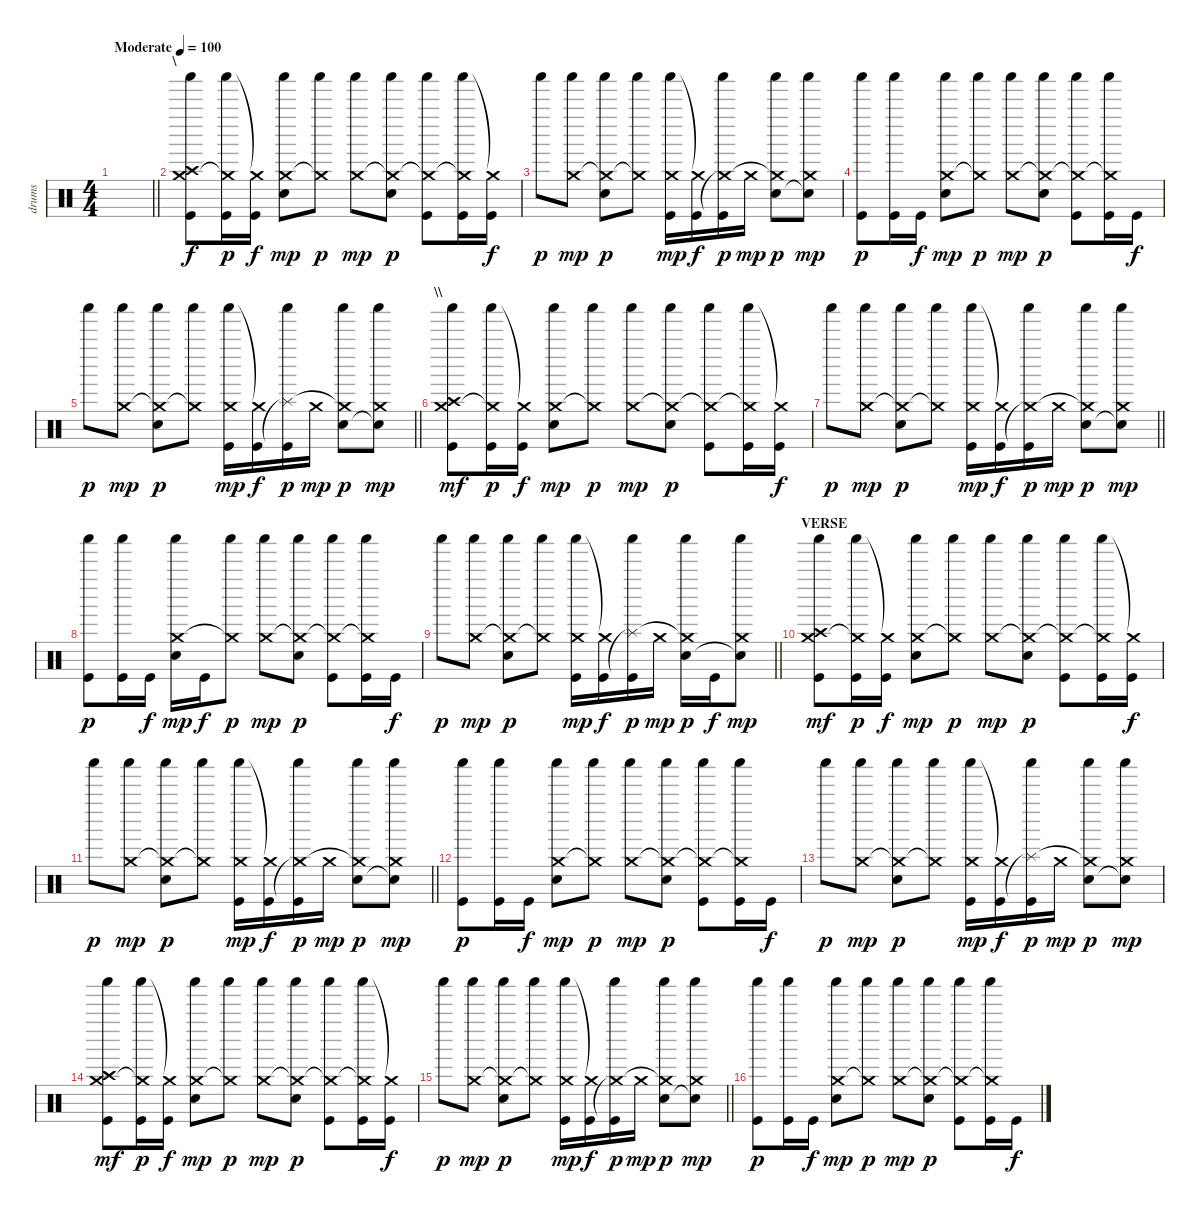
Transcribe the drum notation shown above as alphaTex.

\track ("drums" "drums") {instrument percussion}
\staff {score}
\articulation defaults
\ts (4 4)
\tempo (100 "Moderate")
\clef neutral
\barLineRight lightlight
\ks c
|
\section ("" "\\")
("Shaker (hit)" "Crash medium (hit)" "Crash high (hit)" "Kick (hit)").8 ("Shaker (hit)" "Crash medium (hit)"{t} "Kick (hit)").16{dy p} ("Crash medium (hit)"{t} "Kick (hit)").16{dy f} ("Shaker (hit)" "Crash medium (hit)" "Electric Snare (hit)").8{dy mp} ("Shaker (hit)" "Crash medium (hit)"{t}).8{dy p} ("Shaker (hit)" "Crash medium (hit)").8{dy mp} ("Shaker (hit)" "Crash medium (hit)"{t} "Electric Snare (hit)").8{dy p} ("Shaker (hit)" "Crash medium (hit)"{t} "Kick (hit)").8 ("Shaker (hit)" "Crash medium (hit)"{t} "Kick (hit)").16 ("Crash medium (hit)"{t} "Kick (hit)").16{dy f} |
"Shaker (hit)".8{dy p} ("Shaker (hit)" "Crash medium (hit)").8{dy mp} ("Shaker (hit)" "Crash medium (hit)"{t} "Electric Snare (hit)").8{dy p} ("Shaker (hit)" "Crash medium (hit)"{t}).8 ("Shaker (hit)" "Crash medium (hit)" "Kick (hit)").16{dy mp} ("Crash medium (hit)"{t} "Kick (hit)").16{dy f} ("Shaker (hit)" "Crash medium (hit)"{t} "Kick (hit)").16{dy p} "Crash medium (hit)".16{dy mp} ("Shaker (hit)" "Crash medium (hit)"{t} "Electric Snare (hit)").8{dy p} ("Shaker (hit)" "Crash medium (hit)" "Electric Snare (hit)"{t}).8{dy mp} |
("Shaker (hit)" "Kick (hit)").8{dy p} ("Shaker (hit)" "Kick (hit)").16 "Kick (hit)".16{dy f} ("Shaker (hit)" "Crash medium (hit)" "Electric Snare (hit)").8{dy mp} ("Shaker (hit)" "Crash medium (hit)"{t}).8{dy p} ("Shaker (hit)" "Crash medium (hit)").8{dy mp} ("Shaker (hit)" "Crash medium (hit)"{t} "Electric Snare (hit)").8{dy p} ("Shaker (hit)" "Crash medium (hit)"{t} "Kick (hit)").8 ("Shaker (hit)" "Crash medium (hit)"{t} "Kick (hit)").16 "Kick (hit)".16{dy f} |
\barLineRight lightlight "Shaker (hit)".8{dy p}
("Shaker (hit)" "Crash medium (hit)").8{dy mp} ("Shaker (hit)" "Crash medium (hit)"{t} "Electric Snare (hit)").8{dy p} ("Shaker (hit)" "Crash medium (hit)"{t}).8 ("Shaker (hit)" "Crash medium (hit)" "Kick (hit)").16{dy mp} ("Crash medium (hit)"{t} "Kick (hit)").16{dy f} ("Shaker (hit)" "Splash (hit)"{t} "Kick (hit)").16{dy p} "Crash medium (hit)".16{dy mp} ("Shaker (hit)" "Crash medium (hit)"{t} "Electric Snare (hit)").8{dy p} ("Shaker (hit)" "Crash medium (hit)" "Electric Snare (hit)"{t}).8{dy mp} |
\section ("" "\\\\")
("Shaker (hit)" "Crash medium (hit)" "Crash high (hit)" "Kick (hit)").8{dy mf} ("Shaker (hit)" "Crash medium (hit)"{t} "Kick (hit)").16{dy p} ("Crash medium (hit)"{t} "Kick (hit)").16{dy f} ("Shaker (hit)" "Crash medium (hit)" "Electric Snare (hit)").8{dy mp} ("Shaker (hit)" "Crash medium (hit)"{t}).8{dy p} ("Shaker (hit)" "Crash medium (hit)").8{dy mp} ("Shaker (hit)" "Crash medium (hit)"{t} "Electric Snare (hit)").8{dy p} ("Shaker (hit)" "Crash medium (hit)"{t} "Kick (hit)").8 ("Shaker (hit)" "Crash medium (hit)"{t} "Kick (hit)").16 ("Crash medium (hit)"{t} "Kick (hit)").16{dy f} |
\barLineRight lightlight "Shaker (hit)".8{dy p}
("Shaker (hit)" "Crash medium (hit)").8{dy mp} ("Shaker (hit)" "Crash medium (hit)"{t} "Electric Snare (hit)").8{dy p} ("Shaker (hit)" "Crash medium (hit)"{t}).8 ("Shaker (hit)" "Crash medium (hit)" "Kick (hit)").16{dy mp} ("Crash medium (hit)"{t} "Kick (hit)").16{dy f} ("Shaker (hit)" "Crash medium (hit)"{t} "Kick (hit)").16{dy p} "Crash medium (hit)".16{dy mp} ("Shaker (hit)" "Crash medium (hit)"{t} "Electric Snare (hit)").8{dy p} ("Shaker (hit)" "Crash medium (hit)" "Electric Snare (hit)"{t}).8{dy mp} |
("Shaker (hit)" "Kick (hit)").8{dy p} ("Shaker (hit)" "Kick (hit)").16 "Kick (hit)".16{dy f} ("Shaker (hit)" "Crash medium (hit)" "Electric Snare (hit)").16{dy mp} "Kick (hit)".16{dy f} ("Shaker (hit)" "Crash medium (hit)"{t}).8{dy p} ("Shaker (hit)" "Crash medium (hit)").8{dy mp} ("Shaker (hit)" "Crash medium (hit)"{t} "Electric Snare (hit)").8{dy p} ("Shaker (hit)" "Crash medium (hit)"{t} "Kick (hit)").8 ("Shaker (hit)" "Crash medium (hit)"{t} "Kick (hit)").16 "Kick (hit)".16{dy f} |
\barLineRight lightlight "Shaker (hit)".8{dy p}
("Shaker (hit)" "Crash medium (hit)").8{dy mp} ("Shaker (hit)" "Crash medium (hit)"{t} "Electric Snare (hit)").8{dy p} ("Shaker (hit)" "Crash medium (hit)"{t}).8 ("Shaker (hit)" "Crash medium (hit)" "Kick (hit)").16{dy mp} ("Crash medium (hit)"{t} "Kick (hit)").16{dy f} ("Shaker (hit)" "Splash (hit)"{t} "Kick (hit)").16{dy p} "Crash medium (hit)".16{dy mp} ("Shaker (hit)" "Crash medium (hit)"{t} "Electric Snare (hit)").16{dy p} "Kick (hit)".16{dy f} ("Shaker (hit)" "Crash medium (hit)" "Electric Snare (hit)"{t}).8{dy mp} |
\section ("" "VERSE")
("Shaker (hit)" "Crash medium (hit)" "Crash high (hit)" "Kick (hit)").8{dy mf} ("Shaker (hit)" "Crash medium (hit)"{t} "Kick (hit)").16{dy p} ("Crash medium (hit)"{t} "Kick (hit)").16{dy f} ("Shaker (hit)" "Crash medium (hit)" "Electric Snare (hit)").8{dy mp} ("Shaker (hit)" "Crash medium (hit)"{t}).8{dy p} ("Shaker (hit)" "Crash medium (hit)").8{dy mp} ("Shaker (hit)" "Crash medium (hit)"{t} "Electric Snare (hit)").8{dy p} ("Shaker (hit)" "Crash medium (hit)"{t} "Kick (hit)").8 ("Shaker (hit)" "Crash medium (hit)"{t} "Kick (hit)").16 ("Crash medium (hit)"{t} "Kick (hit)").16{dy f} |
\barLineRight lightlight "Shaker (hit)".8{dy p}
("Shaker (hit)" "Crash medium (hit)").8{dy mp} ("Shaker (hit)" "Crash medium (hit)"{t} "Electric Snare (hit)").8{dy p} ("Shaker (hit)" "Crash medium (hit)"{t}).8 ("Shaker (hit)" "Crash medium (hit)" "Kick (hit)").16{dy mp} ("Crash medium (hit)"{t} "Kick (hit)").16{dy f} ("Shaker (hit)" "Crash medium (hit)"{t} "Kick (hit)").16{dy p} "Crash medium (hit)".16{dy mp} ("Shaker (hit)" "Crash medium (hit)"{t} "Electric Snare (hit)").8{dy p} ("Shaker (hit)" "Crash medium (hit)" "Electric Snare (hit)"{t}).8{dy mp} |
("Shaker (hit)" "Kick (hit)").8{dy p} ("Shaker (hit)" "Kick (hit)").16 "Kick (hit)".16{dy f} ("Shaker (hit)" "Crash medium (hit)" "Electric Snare (hit)").8{dy mp} ("Shaker (hit)" "Crash medium (hit)"{t}).8{dy p} ("Shaker (hit)" "Crash medium (hit)").8{dy mp} ("Shaker (hit)" "Crash medium (hit)"{t} "Electric Snare (hit)").8{dy p} ("Shaker (hit)" "Crash medium (hit)"{t} "Kick (hit)").8 ("Shaker (hit)" "Crash medium (hit)"{t} "Kick (hit)").16 "Kick (hit)".16{dy f} |
"Shaker (hit)".8{dy p} ("Shaker (hit)" "Crash medium (hit)").8{dy mp} ("Shaker (hit)" "Crash medium (hit)"{t} "Electric Snare (hit)").8{dy p} ("Shaker (hit)" "Crash medium (hit)"{t}).8 ("Shaker (hit)" "Crash medium (hit)" "Kick (hit)").16{dy mp} ("Crash medium (hit)"{t} "Kick (hit)").16{dy f} ("Shaker (hit)" "Splash (hit)"{t} "Kick (hit)").16{dy p} "Crash medium (hit)".16{dy mp} ("Shaker (hit)" "Crash medium (hit)"{t} "Electric Snare (hit)").8{dy p} ("Shaker (hit)" "Crash medium (hit)" "Electric Snare (hit)"{t}).8{dy mp} |
("Shaker (hit)" "Crash medium (hit)" "Crash high (hit)" "Kick (hit)").8{dy mf} ("Shaker (hit)" "Crash medium (hit)"{t} "Kick (hit)").16{dy p} ("Crash medium (hit)"{t} "Kick (hit)").16{dy f} ("Shaker (hit)" "Crash medium (hit)" "Electric Snare (hit)").8{dy mp} ("Shaker (hit)" "Crash medium (hit)"{t}).8{dy p} ("Shaker (hit)" "Crash medium (hit)").8{dy mp} ("Shaker (hit)" "Crash medium (hit)"{t} "Electric Snare (hit)").8{dy p} ("Shaker (hit)" "Crash medium (hit)"{t} "Kick (hit)").8 ("Shaker (hit)" "Crash medium (hit)"{t} "Kick (hit)").16 ("Crash medium (hit)"{t} "Kick (hit)").16{dy f} |
\barLineRight lightlight "Shaker (hit)".8{dy p}
("Shaker (hit)" "Crash medium (hit)").8{dy mp} ("Shaker (hit)" "Crash medium (hit)"{t} "Electric Snare (hit)").8{dy p} ("Shaker (hit)" "Crash medium (hit)"{t}).8 ("Shaker (hit)" "Crash medium (hit)" "Kick (hit)").16{dy mp} ("Crash medium (hit)"{t} "Kick (hit)").16{dy f} ("Shaker (hit)" "Crash medium (hit)"{t} "Kick (hit)").16{dy p} "Crash medium (hit)".16{dy mp} ("Shaker (hit)" "Crash medium (hit)"{t} "Electric Snare (hit)").8{dy p} ("Shaker (hit)" "Crash medium (hit)" "Electric Snare (hit)"{t}).8{dy mp} |
("Shaker (hit)" "Kick (hit)").8{dy p} ("Shaker (hit)" "Kick (hit)").16 "Kick (hit)".16{dy f} ("Shaker (hit)" "Crash medium (hit)" "Electric Snare (hit)").8{dy mp} ("Shaker (hit)" "Crash medium (hit)"{t}).8{dy p} ("Shaker (hit)" "Crash medium (hit)").8{dy mp} ("Shaker (hit)" "Crash medium (hit)"{t} "Electric Snare (hit)").8{dy p} ("Shaker (hit)" "Crash medium (hit)"{t} "Kick (hit)").8 ("Shaker (hit)" "Crash medium (hit)"{t} "Kick (hit)").16 "Kick (hit)".16{dy f}
